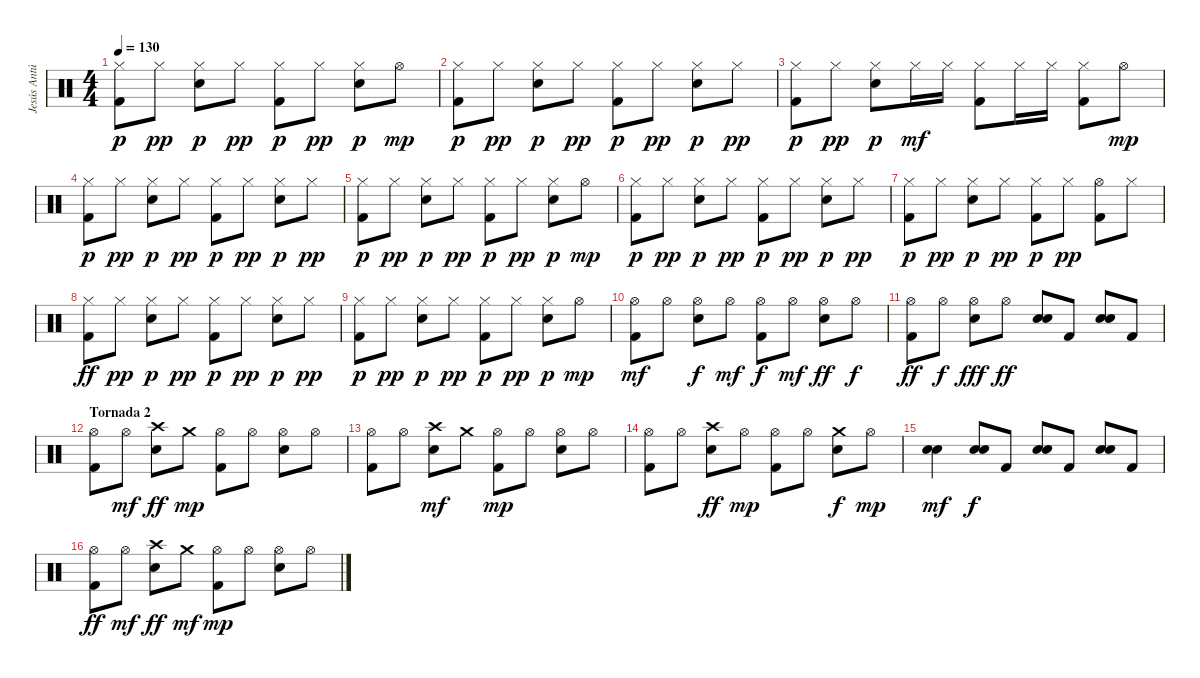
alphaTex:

\track ("Jesús Antúnez (Bateria)" "Jesús Antú") {instrument percussion}
\staff {score}
\articulation defaults
\ts (4 4)
\tempo 130
\clef neutral
\ks c
("Hi-Hat (closed)" "Kick (hit) 2").8{dy p} "Hi-Hat (closed)".8{dy pp} ("Snare (hit) 2" "Hi-Hat (closed)").8{dy p} "Hi-Hat (closed)".8{dy pp} ("Kick (hit) 2" "Hi-Hat (closed)").8{dy p} "Hi-Hat (closed)".8{dy pp} ("Snare (hit) 2" "Hi-Hat (closed)").8{dy p} "Hi-Hat (open)".8{dy mp} |
("Hi-Hat (closed)" "Kick (hit) 2").8{dy p} "Hi-Hat (closed)".8{dy pp} ("Snare (hit) 2" "Hi-Hat (closed)").8{dy p} "Hi-Hat (closed)".8{dy pp} ("Kick (hit) 2" "Hi-Hat (closed)").8{dy p} "Hi-Hat (closed)".8{dy pp} ("Snare (hit) 2" "Hi-Hat (closed)").8{dy p} "Hi-Hat (closed)".8{dy pp} |
("Hi-Hat (closed)" "Kick (hit) 2").8{dy p} "Hi-Hat (closed)".8{dy pp} ("Snare (hit) 2" "Hi-Hat (closed)").8{dy p} "Hi-Hat (closed)".16{dy mf} "Hi-Hat (closed)".16 ("Kick (hit) 2" "Hi-Hat (closed)").8 "Hi-Hat (closed)".16 "Hi-Hat (closed)".16 ("Kick (hit) 2" "Hi-Hat (closed)").8 "Hi-Hat (open)".8{dy mp} |
("Hi-Hat (closed)" "Kick (hit) 2").8{dy p} "Hi-Hat (closed)".8{dy pp} ("Snare (hit) 2" "Hi-Hat (closed)").8{dy p} "Hi-Hat (closed)".8{dy pp} ("Kick (hit) 2" "Hi-Hat (closed)").8{dy p} "Hi-Hat (closed)".8{dy pp} ("Snare (hit) 2" "Hi-Hat (closed)").8{dy p} "Hi-Hat (closed)".8{dy pp} |
("Hi-Hat (closed)" "Kick (hit) 2").8{dy p} "Hi-Hat (closed)".8{dy pp} ("Snare (hit) 2" "Hi-Hat (closed)").8{dy p} "Hi-Hat (closed)".8{dy pp} ("Kick (hit) 2" "Hi-Hat (closed)").8{dy p} "Hi-Hat (closed)".8{dy pp} ("Snare (hit) 2" "Hi-Hat (closed)").8{dy p} "Hi-Hat (open)".8{dy mp} |
("Hi-Hat (closed)" "Kick (hit) 2").8{dy p} "Hi-Hat (closed)".8{dy pp} ("Snare (hit) 2" "Hi-Hat (closed)").8{dy p} "Hi-Hat (closed)".8{dy pp} ("Kick (hit) 2" "Hi-Hat (closed)").8{dy p} "Hi-Hat (closed)".8{dy pp} ("Snare (hit) 2" "Hi-Hat (closed)").8{dy p} "Hi-Hat (closed)".8{dy pp} |
("Hi-Hat (closed)" "Kick (hit) 2").8{dy p} "Hi-Hat (closed)".8{dy pp} ("Snare (hit) 2" "Hi-Hat (closed)").8{dy p} "Hi-Hat (closed)".8{dy pp} ("Kick (hit) 2" "Hi-Hat (closed)").8{dy p} "Hi-Hat (closed)".8{dy pp} ("Kick (hit) 2" "Hi-Hat (open)").8 "Hi-Hat (closed)".8 |
("Hi-Hat (closed)" "Kick (hit) 2").8{dy ff} "Hi-Hat (closed)".8{dy pp} ("Snare (hit) 2" "Hi-Hat (closed)").8{dy p} "Hi-Hat (closed)".8{dy pp} ("Kick (hit) 2" "Hi-Hat (closed)").8{dy p} "Hi-Hat (closed)".8{dy pp} ("Snare (hit) 2" "Hi-Hat (closed)").8{dy p} "Hi-Hat (closed)".8{dy pp} |
("Hi-Hat (closed)" "Kick (hit) 2").8{dy p} "Hi-Hat (closed)".8{dy pp} ("Snare (hit) 2" "Hi-Hat (closed)").8{dy p} "Hi-Hat (closed)".8{dy pp} ("Kick (hit) 2" "Hi-Hat (closed)").8{dy p} "Hi-Hat (closed)".8{dy pp} ("Snare (hit) 2" "Hi-Hat (closed)").8{dy p} "Hi-Hat (open)".8{dy mp} |
("Hi-Hat (open)" "Kick (hit) 2").8{dy mf} "Hi-Hat (open)".8 ("Snare (hit) 2" "Hi-Hat (open)").8{dy f} "Hi-Hat (open)".8{dy mf} ("Kick (hit) 2" "Hi-Hat (open)").8{dy f} "Hi-Hat (open)".8{dy mf} ("Snare (hit) 2" "Hi-Hat (open)").8{dy ff} "Hi-Hat (open)".8{dy f} |
("Hi-Hat (open)" "Kick (hit) 2").8{dy ff} "Hi-Hat (open)".8{dy f} ("Snare (hit) 2" "Hi-Hat (open)").8{dy fff} "Hi-Hat (open)".8{dy ff} ("Snare (hit) 2" "Snare (hit) 2").8 "Kick (hit) 2".8 ("Snare (hit) 2" "Snare (hit) 2").8 "Kick (hit) 2".8 |
\section ("" "Tornada 2")
("Hi-Hat (open)" "Kick (hit) 2").8 "Hi-Hat (open)".8{dy mf} ("Snare (hit) 2" "Crash high (hit)").8{dy ff} "Crash medium (hit)".8{dy mp} ("Kick (hit) 2" "Hi-Hat (open)").8 "Hi-Hat (open)".8 ("Snare (hit) 2" "Hi-Hat (open)").8 "Hi-Hat (open)".8 |
("Hi-Hat (open)" "Kick (hit) 2").8 "Hi-Hat (open)".8 ("Snare (hit) 2" "Crash high (hit)").8{dy mf} "Crash medium (hit)".8 ("Kick (hit) 2" "Hi-Hat (open)").8{dy mp} "Hi-Hat (open)".8 ("Snare (hit) 2" "Hi-Hat (open)").8 "Hi-Hat (open)".8 |
("Hi-Hat (open)" "Kick (hit) 2").8 "Hi-Hat (open)".8 ("Snare (hit) 2" "Crash high (hit)").8{dy ff} "Hi-Hat (open)".8{dy mp} ("Kick (hit) 2" "Hi-Hat (open)").8 "Hi-Hat (open)".8 ("Snare (hit) 2" "Crash medium (hit)").8{dy f} "Hi-Hat (open)".8{dy mp} |
("Snare (hit) 2" "Snare (hit) 2").4{dy mf} ("Snare (hit) 2" "Snare (hit) 2").8{dy f} "Kick (hit) 2".8 ("Snare (hit) 2" "Snare (hit) 2").8 "Kick (hit) 2".8 ("Snare (hit) 2" "Snare (hit) 2").8 "Kick (hit) 2".8 |
("Hi-Hat (open)" "Kick (hit) 2").8{dy ff} "Hi-Hat (open)".8{dy mf} ("Snare (hit) 2" "Crash high (hit)").8{dy ff} "Crash medium (hit)".8{dy mf} ("Kick (hit) 2" "Hi-Hat (open)").8{dy mp} "Hi-Hat (open)".8 ("Snare (hit) 2" "Hi-Hat (open)").8 "Hi-Hat (open)".8
